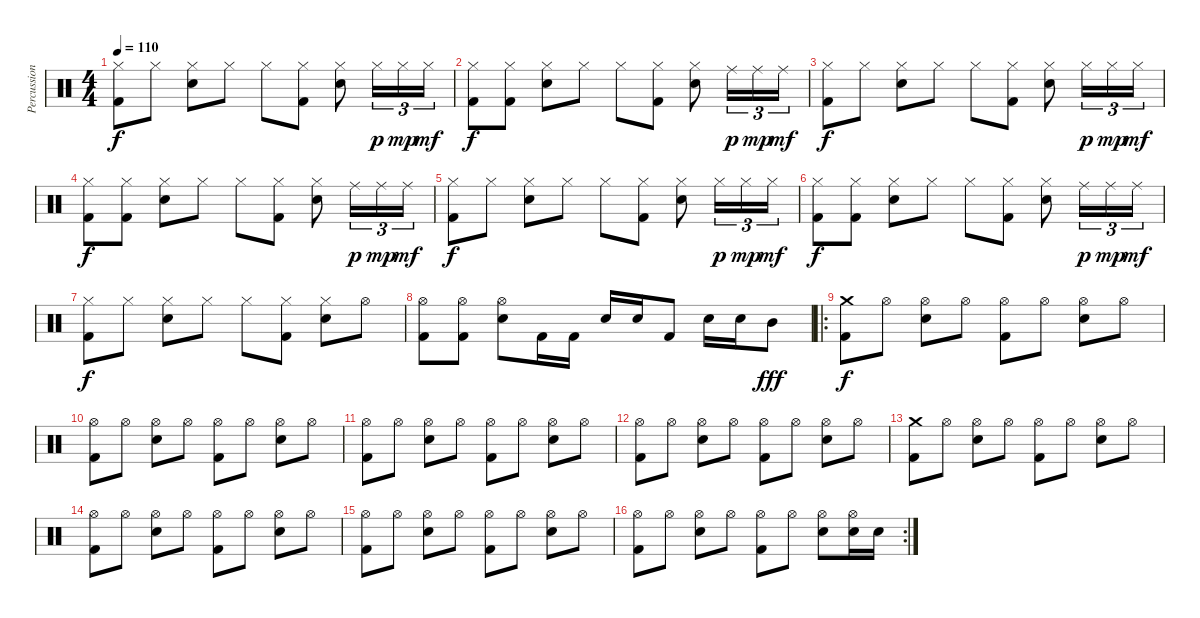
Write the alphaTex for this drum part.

\track ("Percussions" "Percussion") {instrument percussion}
\staff {score}
\articulation defaults
\ts (4 4)
\tempo 110
\clef neutral
\ks c
("Hi-Hat (closed)" "Kick (hit) 2").8{dy f} "Hi-Hat (closed)".8 ("Hi-Hat (closed)" "Electric Snare (hit)").8 "Hi-Hat (closed)".8 "Hi-Hat (closed)".8 ("Hi-Hat (closed)" "Kick (hit) 2").8 ("Hi-Hat (closed)" "Electric Snare (hit)").8 "Hi-Hat (closed)".16{tu (3 2) dy p} "Hi-Hat (closed)".16{tu (3 2) dy mp} "Hi-Hat (closed)".16{tu (3 2) dy mf} |
("Hi-Hat (closed)" "Kick (hit) 2").8{dy f} ("Hi-Hat (closed)" "Kick (hit) 2").8 ("Hi-Hat (closed)" "Electric Snare (hit)").8 "Hi-Hat (closed)".8 "Hi-Hat (closed)".8 ("Hi-Hat (closed)" "Kick (hit) 2").8 ("Hi-Hat (closed)" "Electric Snare (hit)").8 "Ride (middle)".16{tu (3 2) dy p} "Ride (middle)".16{tu (3 2) dy mp} "Ride (middle)".16{tu (3 2) dy mf} |
("Hi-Hat (closed)" "Kick (hit) 2").8{dy f} "Hi-Hat (closed)".8 ("Hi-Hat (closed)" "Electric Snare (hit)").8 "Hi-Hat (closed)".8 "Hi-Hat (closed)".8 ("Hi-Hat (closed)" "Kick (hit) 2").8 ("Hi-Hat (closed)" "Electric Snare (hit)").8 "Hi-Hat (closed)".16{tu (3 2) dy p} "Hi-Hat (closed)".16{tu (3 2) dy mp} "Hi-Hat (closed)".16{tu (3 2) dy mf} |
("Hi-Hat (closed)" "Kick (hit) 2").8{dy f} ("Hi-Hat (closed)" "Kick (hit) 2").8 ("Hi-Hat (closed)" "Electric Snare (hit)").8 "Hi-Hat (closed)".8 "Hi-Hat (closed)".8 ("Hi-Hat (closed)" "Kick (hit) 2").8 ("Hi-Hat (closed)" "Electric Snare (hit)").8 "Ride (middle)".16{tu (3 2) dy p} "Ride (middle)".16{tu (3 2) dy mp} "Ride (middle)".16{tu (3 2) dy mf} |
("Hi-Hat (closed)" "Kick (hit) 2").8{dy f} "Hi-Hat (closed)".8 ("Hi-Hat (closed)" "Electric Snare (hit)").8 "Hi-Hat (closed)".8 "Hi-Hat (closed)".8 ("Hi-Hat (closed)" "Kick (hit) 2").8 ("Hi-Hat (closed)" "Electric Snare (hit)").8 "Hi-Hat (closed)".16{tu (3 2) dy p} "Hi-Hat (closed)".16{tu (3 2) dy mp} "Hi-Hat (closed)".16{tu (3 2) dy mf} |
("Hi-Hat (closed)" "Kick (hit) 2").8{dy f} ("Hi-Hat (closed)" "Kick (hit) 2").8 ("Hi-Hat (closed)" "Electric Snare (hit)").8 "Hi-Hat (closed)".8 "Hi-Hat (closed)".8 ("Hi-Hat (closed)" "Kick (hit) 2").8 ("Hi-Hat (closed)" "Electric Snare (hit)").8 "Ride (middle)".16{tu (3 2) dy p} "Ride (middle)".16{tu (3 2) dy mp} "Ride (middle)".16{tu (3 2) dy mf} |
("Hi-Hat (closed)" "Kick (hit) 2").8{dy f} "Hi-Hat (closed)".8 ("Hi-Hat (closed)" "Electric Snare (hit)").8 "Hi-Hat (closed)".8 "Hi-Hat (closed)".8 ("Hi-Hat (closed)" "Kick (hit) 2").8 ("Hi-Hat (closed)" "Electric Snare (hit)").8 "Hi-Hat (open)".8 |
("Hi-Hat (open)" "Kick (hit) 2").8 ("Hi-Hat (open)" "Kick (hit) 2").8 ("Hi-Hat (open)" "Electric Snare (hit)").8 "Kick (hit) 2".16 "Kick (hit) 2".16 "Electric Snare (hit)".16 "Electric Snare (hit)".16 "Kick (hit) 2".8 "Electric Snare (hit)".16 "Electric Snare (hit)".16 "Mid Tom (hit)".8{dy fff} |
\ro
("Crash medium (hit)" "Kick (hit) 2").8{dy f} "Hi-Hat (open)".8 ("Hi-Hat (open)" "Electric Snare (hit)").8 "Hi-Hat (open)".8 ("Hi-Hat (open)" "Kick (hit) 2").8 "Hi-Hat (open)".8 ("Hi-Hat (open)" "Electric Snare (hit)").8 "Hi-Hat (open)".8 |
("Hi-Hat (open)" "Kick (hit) 2").8 "Hi-Hat (open)".8 ("Hi-Hat (open)" "Electric Snare (hit)").8 "Hi-Hat (open)".8 ("Hi-Hat (open)" "Kick (hit) 2").8 "Hi-Hat (open)".8 ("Hi-Hat (open)" "Electric Snare (hit)").8 "Hi-Hat (open)".8 |
("Hi-Hat (open)" "Kick (hit) 2").8 "Hi-Hat (open)".8 ("Hi-Hat (open)" "Electric Snare (hit)").8 "Hi-Hat (open)".8 ("Hi-Hat (open)" "Kick (hit) 2").8 "Hi-Hat (open)".8 ("Hi-Hat (open)" "Electric Snare (hit)").8 "Hi-Hat (open)".8 |
("Hi-Hat (open)" "Kick (hit) 2").8 "Hi-Hat (open)".8 ("Hi-Hat (open)" "Electric Snare (hit)").8 "Hi-Hat (open)".8 ("Hi-Hat (open)" "Kick (hit) 2").8 "Hi-Hat (open)".8 ("Hi-Hat (open)" "Electric Snare (hit)").8 "Hi-Hat (open)".8 |
("Crash medium (hit)" "Kick (hit) 2").8 "Hi-Hat (open)".8 ("Hi-Hat (open)" "Electric Snare (hit)").8 "Hi-Hat (open)".8 ("Hi-Hat (open)" "Kick (hit) 2").8 "Hi-Hat (open)".8 ("Hi-Hat (open)" "Electric Snare (hit)").8 "Hi-Hat (open)".8 |
("Hi-Hat (open)" "Kick (hit) 2").8 "Hi-Hat (open)".8 ("Hi-Hat (open)" "Electric Snare (hit)").8 "Hi-Hat (open)".8 ("Hi-Hat (open)" "Kick (hit) 2").8 "Hi-Hat (open)".8 ("Hi-Hat (open)" "Electric Snare (hit)").8 "Hi-Hat (open)".8 |
("Hi-Hat (open)" "Kick (hit) 2").8 "Hi-Hat (open)".8 ("Hi-Hat (open)" "Electric Snare (hit)").8 "Hi-Hat (open)".8 ("Hi-Hat (open)" "Kick (hit) 2").8 "Hi-Hat (open)".8 ("Hi-Hat (open)" "Electric Snare (hit)").8 "Hi-Hat (open)".8 |
\rc 2
("Hi-Hat (open)" "Kick (hit) 2").8 "Hi-Hat (open)".8 ("Hi-Hat (open)" "Electric Snare (hit)").8 "Hi-Hat (open)".8 ("Hi-Hat (open)" "Kick (hit) 2").8 "Hi-Hat (open)".8 ("Hi-Hat (open)" "Electric Snare (hit)").8 ("Hi-Hat (open)" "Electric Snare (hit)").16 "Electric Snare (hit)".16
